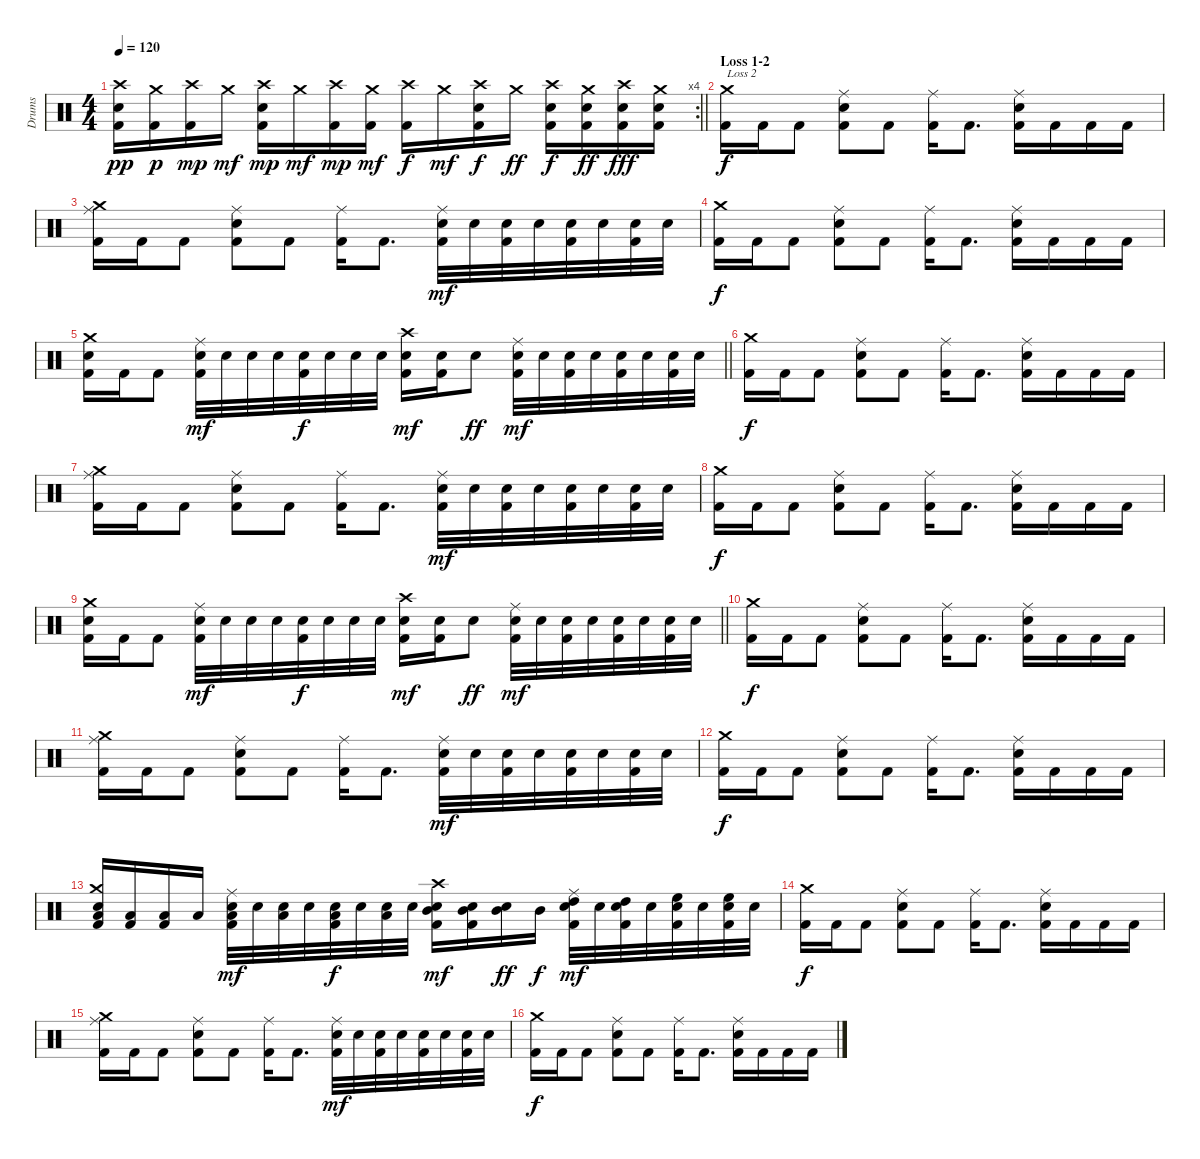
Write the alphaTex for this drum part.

\track ("Drums" "Drums") {instrument percussion}
\staff {score}
\articulation defaults
\rc 4
\ts (4 4)
\tempo 120
\clef neutral
\barLineRight lightlight
\ks c
("Crash high (hit)" "Electric Snare (hit)" "Kick (hit) 2").16{dy pp} ("Crash medium (hit)" "Kick (hit) 2").16{dy p} ("Crash high (hit)" "Kick (hit) 2").16{dy mp} "Crash medium (hit)".16{dy mf} ("Crash high (hit)" "Electric Snare (hit)" "Kick (hit) 2").16{dy mp} "Crash medium (hit)".16{dy mf} ("Crash high (hit)" "Kick (hit) 2").16{dy mp} ("Crash medium (hit)" "Kick (hit) 2").16{dy mf} ("Crash high (hit)" "Kick (hit) 2").16{dy f} "Crash medium (hit)".16{dy mf} ("Crash high (hit)" "Electric Snare (hit)" "Kick (hit) 2").16{dy f} "Crash medium (hit)".16{dy ff} ("Crash high (hit)" "Electric Snare (hit)" "Kick (hit) 2").16{dy f} ("Crash medium (hit)" "Electric Snare (hit)" "Kick (hit) 2").16{dy ff} ("Crash high (hit)" "Electric Snare (hit)" "Kick (hit) 2").16{dy fff} ("Crash medium (hit)" "Electric Snare (hit)" "Kick (hit) 2").16 |
\section ("" "Loss 1-2")
("Crash medium (hit)" "Kick (hit) 2").16{txt "Loss 2" dy f} "Kick (hit) 2".16 "Kick (hit) 2".8 ("Ride (middle)" "Electric Snare (hit)" "Kick (hit) 2").8 "Kick (hit) 2".8 ("Ride (middle)" "Kick (hit) 2").16 "Kick (hit) 2".8{d} ("Ride (middle)" "Electric Snare (hit)" "Kick (hit) 2").16 "Kick (hit) 2".16 "Kick (hit) 2".16 "Kick (hit) 2".16 |
("Crash medium (hit)" "Ride (middle)" "Kick (hit) 2").16 "Kick (hit) 2".16 "Kick (hit) 2".8 ("Ride (middle)" "Electric Snare (hit)" "Kick (hit) 2").8 "Kick (hit) 2".8 ("Ride (middle)" "Kick (hit) 2").16 "Kick (hit) 2".8{d} ("Ride (middle)" "Electric Snare (hit)" "Kick (hit) 2").32{dy mf} "Electric Snare (hit)".32 ("Electric Snare (hit)" "Kick (hit) 2").32 "Electric Snare (hit)".32 ("Electric Snare (hit)" "Kick (hit) 2").32 "Electric Snare (hit)".32 ("Electric Snare (hit)" "Kick (hit) 2").32 "Electric Snare (hit)".32 |
("Crash medium (hit)" "Kick (hit) 2").16{dy f} "Kick (hit) 2".16 "Kick (hit) 2".8 ("Ride (middle)" "Electric Snare (hit)" "Kick (hit) 2").8 "Kick (hit) 2".8 ("Ride (middle)" "Kick (hit) 2").16 "Kick (hit) 2".8{d} ("Ride (middle)" "Electric Snare (hit)" "Kick (hit) 2").16 "Kick (hit) 2".16 "Kick (hit) 2".16 "Kick (hit) 2".16 |
\barLineRight lightlight
("Crash medium (hit)" "Electric Snare (hit)" "Kick (hit) 2").16 "Kick (hit) 2".16 "Kick (hit) 2".8 ("Ride (middle)" "Electric Snare (hit)" "Kick (hit) 2").32{dy mf} "Electric Snare (hit)".32 "Electric Snare (hit)".32 "Electric Snare (hit)".32 ("Electric Snare (hit)" "Kick (hit) 2").32{dy f} "Electric Snare (hit)".32 "Electric Snare (hit)".32 "Electric Snare (hit)".32 ("Crash high (hit)" "Electric Snare (hit)" "Kick (hit) 2").16{dy mf} ("Electric Snare (hit)" "Kick (hit) 2").16 "Electric Snare (hit)".8{dy ff} ("Ride (middle)" "Electric Snare (hit)" "Kick (hit) 2").32{dy mf} "Electric Snare (hit)".32 ("Electric Snare (hit)" "Kick (hit) 2").32 "Electric Snare (hit)".32 ("Electric Snare (hit)" "Kick (hit) 2").32 "Electric Snare (hit)".32 ("Electric Snare (hit)" "Kick (hit) 2").32 "Electric Snare (hit)".32 |
("Crash medium (hit)" "Kick (hit) 2").16{dy f} "Kick (hit) 2".16 "Kick (hit) 2".8 ("Ride (middle)" "Electric Snare (hit)" "Kick (hit) 2").8 "Kick (hit) 2".8 ("Ride (middle)" "Kick (hit) 2").16 "Kick (hit) 2".8{d} ("Ride (middle)" "Electric Snare (hit)" "Kick (hit) 2").16 "Kick (hit) 2".16 "Kick (hit) 2".16 "Kick (hit) 2".16 |
("Crash medium (hit)" "Ride (middle)" "Kick (hit) 2").16 "Kick (hit) 2".16 "Kick (hit) 2".8 ("Ride (middle)" "Electric Snare (hit)" "Kick (hit) 2").8 "Kick (hit) 2".8 ("Ride (middle)" "Kick (hit) 2").16 "Kick (hit) 2".8{d} ("Ride (middle)" "Electric Snare (hit)" "Kick (hit) 2").32{dy mf} "Electric Snare (hit)".32 ("Electric Snare (hit)" "Kick (hit) 2").32 "Electric Snare (hit)".32 ("Electric Snare (hit)" "Kick (hit) 2").32 "Electric Snare (hit)".32 ("Electric Snare (hit)" "Kick (hit) 2").32 "Electric Snare (hit)".32 |
("Crash medium (hit)" "Kick (hit) 2").16{dy f} "Kick (hit) 2".16 "Kick (hit) 2".8 ("Ride (middle)" "Electric Snare (hit)" "Kick (hit) 2").8 "Kick (hit) 2".8 ("Ride (middle)" "Kick (hit) 2").16 "Kick (hit) 2".8{d} ("Ride (middle)" "Electric Snare (hit)" "Kick (hit) 2").16 "Kick (hit) 2".16 "Kick (hit) 2".16 "Kick (hit) 2".16 |
\barLineRight lightlight
("Crash medium (hit)" "Electric Snare (hit)" "Kick (hit) 2").16 "Kick (hit) 2".16 "Kick (hit) 2".8 ("Ride (middle)" "Electric Snare (hit)" "Kick (hit) 2").32{dy mf} "Electric Snare (hit)".32 "Electric Snare (hit)".32 "Electric Snare (hit)".32 ("Electric Snare (hit)" "Kick (hit) 2").32{dy f} "Electric Snare (hit)".32 "Electric Snare (hit)".32 "Electric Snare (hit)".32 ("Crash high (hit)" "Electric Snare (hit)" "Kick (hit) 2").16{dy mf} ("Electric Snare (hit)" "Kick (hit) 2").16 "Electric Snare (hit)".8{dy ff} ("Ride (middle)" "Electric Snare (hit)" "Kick (hit) 2").32{dy mf} "Electric Snare (hit)".32 ("Electric Snare (hit)" "Kick (hit) 2").32 "Electric Snare (hit)".32 ("Electric Snare (hit)" "Kick (hit) 2").32 "Electric Snare (hit)".32 ("Electric Snare (hit)" "Kick (hit) 2").32 "Electric Snare (hit)".32 |
("Crash medium (hit)" "Kick (hit) 2").16{dy f} "Kick (hit) 2".16 "Kick (hit) 2".8 ("Ride (middle)" "Electric Snare (hit)" "Kick (hit) 2").8 "Kick (hit) 2".8 ("Ride (middle)" "Kick (hit) 2").16 "Kick (hit) 2".8{d} ("Ride (middle)" "Electric Snare (hit)" "Kick (hit) 2").16 "Kick (hit) 2".16 "Kick (hit) 2".16 "Kick (hit) 2".16 |
("Crash medium (hit)" "Ride (middle)" "Kick (hit) 2").16 "Kick (hit) 2".16 "Kick (hit) 2".8 ("Ride (middle)" "Electric Snare (hit)" "Kick (hit) 2").8 "Kick (hit) 2".8 ("Ride (middle)" "Kick (hit) 2").16 "Kick (hit) 2".8{d} ("Ride (middle)" "Electric Snare (hit)" "Kick (hit) 2").32{dy mf} "Electric Snare (hit)".32 ("Electric Snare (hit)" "Kick (hit) 2").32 "Electric Snare (hit)".32 ("Electric Snare (hit)" "Kick (hit) 2").32 "Electric Snare (hit)".32 ("Electric Snare (hit)" "Kick (hit) 2").32 "Electric Snare (hit)".32 |
("Crash medium (hit)" "Kick (hit) 2").16{dy f} "Kick (hit) 2".16 "Kick (hit) 2".8 ("Ride (middle)" "Electric Snare (hit)" "Kick (hit) 2").8 "Kick (hit) 2".8 ("Ride (middle)" "Kick (hit) 2").16 "Kick (hit) 2".8{d} ("Ride (middle)" "Electric Snare (hit)" "Kick (hit) 2").16 "Kick (hit) 2".16 "Kick (hit) 2".16 "Kick (hit) 2".16 |
("Crash medium (hit)" "Low Tom (hit)" "Electric Snare (hit)" "Kick (hit) 2").16 ("Low Tom (hit)" "Kick (hit) 2").16 ("Low Tom (hit)" "Kick (hit) 2").16 "Low Tom (hit)".16 ("Ride (middle)" "Low Floor Tom (hit)" "Electric Snare (hit)" "Kick (hit) 2").32{dy mf} "Electric Snare (hit)".32 ("Low Floor Tom (hit)" "Electric Snare (hit)").32 "Electric Snare (hit)".32 ("Low Floor Tom (hit)" "Electric Snare (hit)" "Kick (hit) 2").32{dy f} "Electric Snare (hit)".32 ("Low Floor Tom (hit)" "Electric Snare (hit)").32 "Electric Snare (hit)".32 ("Crash high (hit)" "Mid Tom (hit)" "Electric Snare (hit)" "Kick (hit) 2").16{dy mf} ("Mid Tom (hit)" "Electric Snare (hit)" "Kick (hit) 2").16 ("Mid Tom (hit)" "Electric Snare (hit)").16{dy ff} "Mid Tom (hit)".16{dy f} ("Ride (middle)" "High Tom (hit)" "Electric Snare (hit)" "Kick (hit) 2").32{dy mf} "Electric Snare (hit)".32 ("High Tom (hit)" "Electric Snare (hit)" "Kick (hit) 2").32 "Electric Snare (hit)".32 ("High Floor Tom (hit)" "Electric Snare (hit)" "Kick (hit) 2").32 "Electric Snare (hit)".32 ("High Floor Tom (hit)" "Electric Snare (hit)" "Kick (hit) 2").32 "Electric Snare (hit)".32 |
("Crash medium (hit)" "Kick (hit) 2").16{dy f} "Kick (hit) 2".16 "Kick (hit) 2".8 ("Ride (middle)" "Electric Snare (hit)" "Kick (hit) 2").8 "Kick (hit) 2".8 ("Ride (middle)" "Kick (hit) 2").16 "Kick (hit) 2".8{d} ("Ride (middle)" "Electric Snare (hit)" "Kick (hit) 2").16 "Kick (hit) 2".16 "Kick (hit) 2".16 "Kick (hit) 2".16 |
("Crash medium (hit)" "Ride (middle)" "Kick (hit) 2").16 "Kick (hit) 2".16 "Kick (hit) 2".8 ("Ride (middle)" "Electric Snare (hit)" "Kick (hit) 2").8 "Kick (hit) 2".8 ("Ride (middle)" "Kick (hit) 2").16 "Kick (hit) 2".8{d} ("Ride (middle)" "Electric Snare (hit)" "Kick (hit) 2").32{dy mf} "Electric Snare (hit)".32 ("Electric Snare (hit)" "Kick (hit) 2").32 "Electric Snare (hit)".32 ("Electric Snare (hit)" "Kick (hit) 2").32 "Electric Snare (hit)".32 ("Electric Snare (hit)" "Kick (hit) 2").32 "Electric Snare (hit)".32 |
("Crash medium (hit)" "Kick (hit) 2").16{dy f} "Kick (hit) 2".16 "Kick (hit) 2".8 ("Ride (middle)" "Electric Snare (hit)" "Kick (hit) 2").8 "Kick (hit) 2".8 ("Ride (middle)" "Kick (hit) 2").16 "Kick (hit) 2".8{d} ("Ride (middle)" "Electric Snare (hit)" "Kick (hit) 2").16 "Kick (hit) 2".16 "Kick (hit) 2".16 "Kick (hit) 2".16
